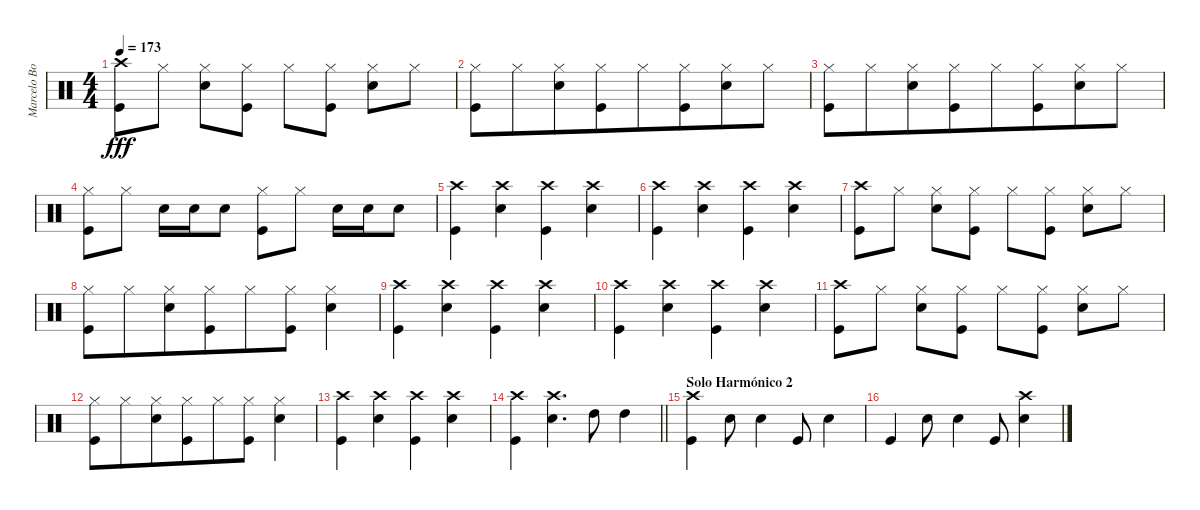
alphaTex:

\track ("Marcelo Bonfá (Bateria)" "Marcelo Bo") {instrument percussion}
\staff {score}
\articulation defaults
\ts (4 4)
\tempo 173
\clef neutral
\ks c
("Kick (hit)" "Crash high (hit)").8{dy fff} "Hi-Hat (closed)".8 ("Snare (hit) 2" "Hi-Hat (closed)").8 ("Kick (hit)" "Hi-Hat (closed)").8 "Hi-Hat (closed)".8 ("Hi-Hat (closed)" "Kick (hit)").8 ("Snare (hit) 2" "Hi-Hat (closed)").8 "Hi-Hat (closed)".8 |
("Kick (hit)" "Hi-Hat (closed)").8 "Hi-Hat (closed)".8{beam merge} ("Snare (hit) 2" "Hi-Hat (closed)").8 ("Kick (hit)" "Hi-Hat (closed)").8{beam merge} "Hi-Hat (closed)".8 ("Hi-Hat (closed)" "Kick (hit)").8{beam merge} ("Snare (hit) 2" "Hi-Hat (closed)").8 "Hi-Hat (closed)".8 |
("Kick (hit)" "Hi-Hat (closed)").8 "Hi-Hat (closed)".8{beam merge} ("Snare (hit) 2" "Hi-Hat (closed)").8 ("Kick (hit)" "Hi-Hat (closed)").8{beam merge} "Hi-Hat (closed)".8 ("Hi-Hat (closed)" "Kick (hit)").8{beam merge} ("Snare (hit) 2" "Hi-Hat (closed)").8 "Hi-Hat (closed)".8 |
("Hi-Hat (closed)" "Kick (hit)").8 "Hi-Hat (closed)".8 "Snare (hit) 2".16 "Snare (hit) 2".16 "Snare (hit) 2".8 ("Hi-Hat (closed)" "Kick (hit)").8 "Hi-Hat (closed)".8 "Snare (hit) 2".16 "Snare (hit) 2".16 "Snare (hit) 2".8 |
("Kick (hit)" "Crash high (hit)").4 ("Crash high (hit)" "Snare (hit) 2").4 ("Kick (hit)" "Crash high (hit)").4 ("Snare (hit) 2" "Crash high (hit)").4 |
("Kick (hit)" "Crash high (hit)").4 ("Crash high (hit)" "Snare (hit) 2").4 ("Kick (hit)" "Crash high (hit)").4 ("Snare (hit) 2" "Crash high (hit)").4 |
("Kick (hit)" "Crash high (hit)").8 "Hi-Hat (closed)".8 ("Snare (hit) 2" "Hi-Hat (closed)").8 ("Kick (hit)" "Hi-Hat (closed)").8 "Hi-Hat (closed)".8 ("Hi-Hat (closed)" "Kick (hit)").8 ("Snare (hit) 2" "Hi-Hat (closed)").8 "Hi-Hat (closed)".8 |
("Kick (hit)" "Hi-Hat (closed)").8 "Hi-Hat (closed)".8{beam merge} ("Snare (hit) 2" "Hi-Hat (closed)").8 ("Kick (hit)" "Hi-Hat (closed)").8{beam merge} "Hi-Hat (closed)".8 ("Hi-Hat (closed)" "Kick (hit)").8{beam merge} ("Snare (hit) 2" "Hi-Hat (closed)").4 |
("Kick (hit)" "Crash high (hit)").4 ("Crash high (hit)" "Snare (hit) 2").4 ("Kick (hit)" "Crash high (hit)").4 ("Snare (hit) 2" "Crash high (hit)").4 |
("Kick (hit)" "Crash high (hit)").4 ("Crash high (hit)" "Snare (hit) 2").4 ("Kick (hit)" "Crash high (hit)").4 ("Snare (hit) 2" "Crash high (hit)").4 |
("Kick (hit)" "Crash high (hit)").8 "Hi-Hat (closed)".8 ("Snare (hit) 2" "Hi-Hat (closed)").8 ("Kick (hit)" "Hi-Hat (closed)").8 "Hi-Hat (closed)".8 ("Hi-Hat (closed)" "Kick (hit)").8 ("Snare (hit) 2" "Hi-Hat (closed)").8 "Hi-Hat (closed)".8 |
("Kick (hit)" "Hi-Hat (closed)").8 "Hi-Hat (closed)".8{beam merge} ("Snare (hit) 2" "Hi-Hat (closed)").8 ("Kick (hit)" "Hi-Hat (closed)").8{beam merge} "Hi-Hat (closed)".8 ("Hi-Hat (closed)" "Kick (hit)").8{beam merge} ("Snare (hit) 2" "Hi-Hat (closed)").4 |
("Kick (hit)" "Crash high (hit)").4 ("Snare (hit) 2" "Crash high (hit)").4 ("Kick (hit)" "Crash high (hit)").4 ("Snare (hit) 2" "Crash high (hit)").4 |
\barLineRight lightlight
("Kick (hit)" "Crash high (hit)").4 ("Snare (hit) 2" "Crash high (hit)").4{d} "High Tom (hit)".8 "High Tom (hit)".4 |
\section ("" "Solo Harmónico 2")
("Kick (hit)" "Crash high (hit)").4 "Snare (hit) 2".8 "Snare (hit) 2".4 "Kick (hit)".8 "Snare (hit) 2".4 |
"Kick (hit)".4 "Snare (hit) 2".8 "Snare (hit) 2".4 "Kick (hit)".8 ("Snare (hit) 2" "Crash high (hit)").4
